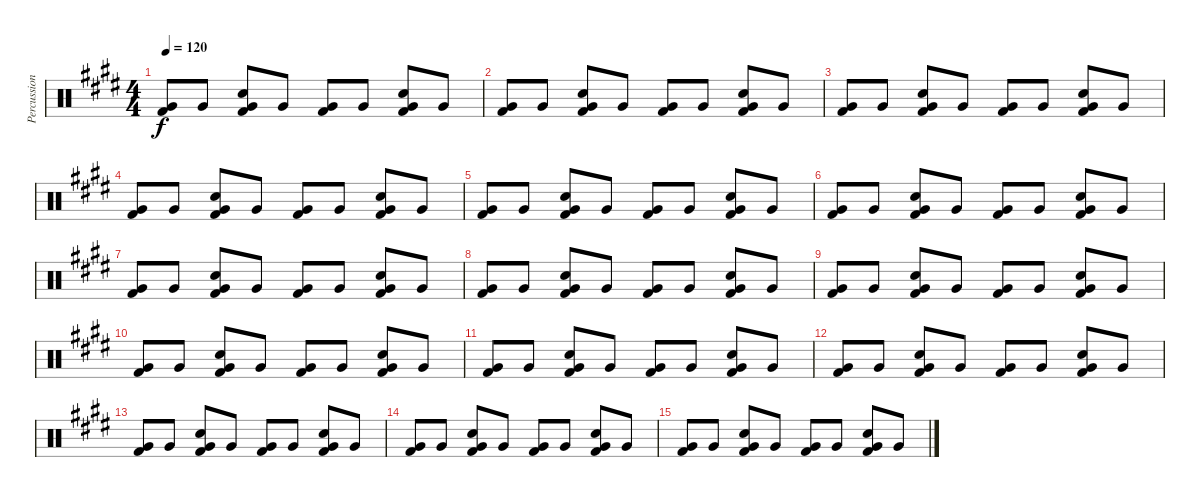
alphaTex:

\track ("Percussion" "Percussion") {instrument percussion}
\staff {score}
\articulation defaults
\ts (4 4)
\tempo 120
\clef neutral
\ks e
("Very Low Tom (hit)" "Kick (hit) 2").8{dy f} "Very Low Tom (hit)".8 ("Snare (hit) 2" "Very Low Tom (hit)" "Kick (hit) 2").8 "Very Low Tom (hit)".8 ("Very Low Tom (hit)" "Kick (hit) 2").8 "Very Low Tom (hit)".8 ("Snare (hit) 2" "Very Low Tom (hit)" "Kick (hit) 2").8 "Very Low Tom (hit)".8 |
("Very Low Tom (hit)" "Kick (hit) 2").8 "Very Low Tom (hit)".8 ("Snare (hit) 2" "Very Low Tom (hit)" "Kick (hit) 2").8 "Very Low Tom (hit)".8 ("Very Low Tom (hit)" "Kick (hit) 2").8 "Very Low Tom (hit)".8 ("Snare (hit) 2" "Very Low Tom (hit)" "Kick (hit) 2").8 "Very Low Tom (hit)".8 |
("Very Low Tom (hit)" "Kick (hit) 2").8 "Very Low Tom (hit)".8 ("Snare (hit) 2" "Very Low Tom (hit)" "Kick (hit) 2").8 "Very Low Tom (hit)".8 ("Very Low Tom (hit)" "Kick (hit) 2").8 "Very Low Tom (hit)".8 ("Snare (hit) 2" "Very Low Tom (hit)" "Kick (hit) 2").8 "Very Low Tom (hit)".8 |
("Very Low Tom (hit)" "Kick (hit) 2").8 "Very Low Tom (hit)".8 ("Snare (hit) 2" "Very Low Tom (hit)" "Kick (hit) 2").8 "Very Low Tom (hit)".8 ("Very Low Tom (hit)" "Kick (hit) 2").8 "Very Low Tom (hit)".8 ("Snare (hit) 2" "Very Low Tom (hit)" "Kick (hit) 2").8 "Very Low Tom (hit)".8 |
("Very Low Tom (hit)" "Kick (hit) 2").8 "Very Low Tom (hit)".8 ("Snare (hit) 2" "Very Low Tom (hit)" "Kick (hit) 2").8 "Very Low Tom (hit)".8 ("Very Low Tom (hit)" "Kick (hit) 2").8 "Very Low Tom (hit)".8 ("Snare (hit) 2" "Very Low Tom (hit)" "Kick (hit) 2").8 "Very Low Tom (hit)".8 |
("Very Low Tom (hit)" "Kick (hit) 2").8 "Very Low Tom (hit)".8 ("Snare (hit) 2" "Very Low Tom (hit)" "Kick (hit) 2").8 "Very Low Tom (hit)".8 ("Very Low Tom (hit)" "Kick (hit) 2").8 "Very Low Tom (hit)".8 ("Snare (hit) 2" "Very Low Tom (hit)" "Kick (hit) 2").8 "Very Low Tom (hit)".8 |
("Very Low Tom (hit)" "Kick (hit) 2").8 "Very Low Tom (hit)".8 ("Snare (hit) 2" "Very Low Tom (hit)" "Kick (hit) 2").8 "Very Low Tom (hit)".8 ("Very Low Tom (hit)" "Kick (hit) 2").8 "Very Low Tom (hit)".8 ("Snare (hit) 2" "Very Low Tom (hit)" "Kick (hit) 2").8 "Very Low Tom (hit)".8 |
("Very Low Tom (hit)" "Kick (hit) 2").8 "Very Low Tom (hit)".8 ("Snare (hit) 2" "Very Low Tom (hit)" "Kick (hit) 2").8 "Very Low Tom (hit)".8 ("Very Low Tom (hit)" "Kick (hit) 2").8 "Very Low Tom (hit)".8 ("Snare (hit) 2" "Very Low Tom (hit)" "Kick (hit) 2").8 "Very Low Tom (hit)".8 |
("Very Low Tom (hit)" "Kick (hit) 2").8 "Very Low Tom (hit)".8 ("Snare (hit) 2" "Very Low Tom (hit)" "Kick (hit) 2").8 "Very Low Tom (hit)".8 ("Very Low Tom (hit)" "Kick (hit) 2").8 "Very Low Tom (hit)".8 ("Snare (hit) 2" "Very Low Tom (hit)" "Kick (hit) 2").8 "Very Low Tom (hit)".8 |
("Very Low Tom (hit)" "Kick (hit) 2").8 "Very Low Tom (hit)".8 ("Snare (hit) 2" "Very Low Tom (hit)" "Kick (hit) 2").8 "Very Low Tom (hit)".8 ("Very Low Tom (hit)" "Kick (hit) 2").8 "Very Low Tom (hit)".8 ("Snare (hit) 2" "Very Low Tom (hit)" "Kick (hit) 2").8 "Very Low Tom (hit)".8 |
("Very Low Tom (hit)" "Kick (hit) 2").8 "Very Low Tom (hit)".8 ("Snare (hit) 2" "Very Low Tom (hit)" "Kick (hit) 2").8 "Very Low Tom (hit)".8 ("Very Low Tom (hit)" "Kick (hit) 2").8 "Very Low Tom (hit)".8 ("Snare (hit) 2" "Very Low Tom (hit)" "Kick (hit) 2").8 "Very Low Tom (hit)".8 |
("Very Low Tom (hit)" "Kick (hit) 2").8 "Very Low Tom (hit)".8 ("Snare (hit) 2" "Very Low Tom (hit)" "Kick (hit) 2").8 "Very Low Tom (hit)".8 ("Very Low Tom (hit)" "Kick (hit) 2").8 "Very Low Tom (hit)".8 ("Snare (hit) 2" "Very Low Tom (hit)" "Kick (hit) 2").8 "Very Low Tom (hit)".8 |
("Very Low Tom (hit)" "Kick (hit) 2").8 "Very Low Tom (hit)".8 ("Snare (hit) 2" "Very Low Tom (hit)" "Kick (hit) 2").8 "Very Low Tom (hit)".8 ("Very Low Tom (hit)" "Kick (hit) 2").8 "Very Low Tom (hit)".8 ("Snare (hit) 2" "Very Low Tom (hit)" "Kick (hit) 2").8 "Very Low Tom (hit)".8 |
("Very Low Tom (hit)" "Kick (hit) 2").8 "Very Low Tom (hit)".8 ("Snare (hit) 2" "Very Low Tom (hit)" "Kick (hit) 2").8 "Very Low Tom (hit)".8 ("Very Low Tom (hit)" "Kick (hit) 2").8 "Very Low Tom (hit)".8 ("Snare (hit) 2" "Very Low Tom (hit)" "Kick (hit) 2").8 "Very Low Tom (hit)".8 |
("Very Low Tom (hit)" "Kick (hit) 2").8 "Very Low Tom (hit)".8 ("Snare (hit) 2" "Very Low Tom (hit)" "Kick (hit) 2").8 "Very Low Tom (hit)".8 ("Very Low Tom (hit)" "Kick (hit) 2").8 "Very Low Tom (hit)".8 ("Snare (hit) 2" "Very Low Tom (hit)" "Kick (hit) 2").8 "Very Low Tom (hit)".8
